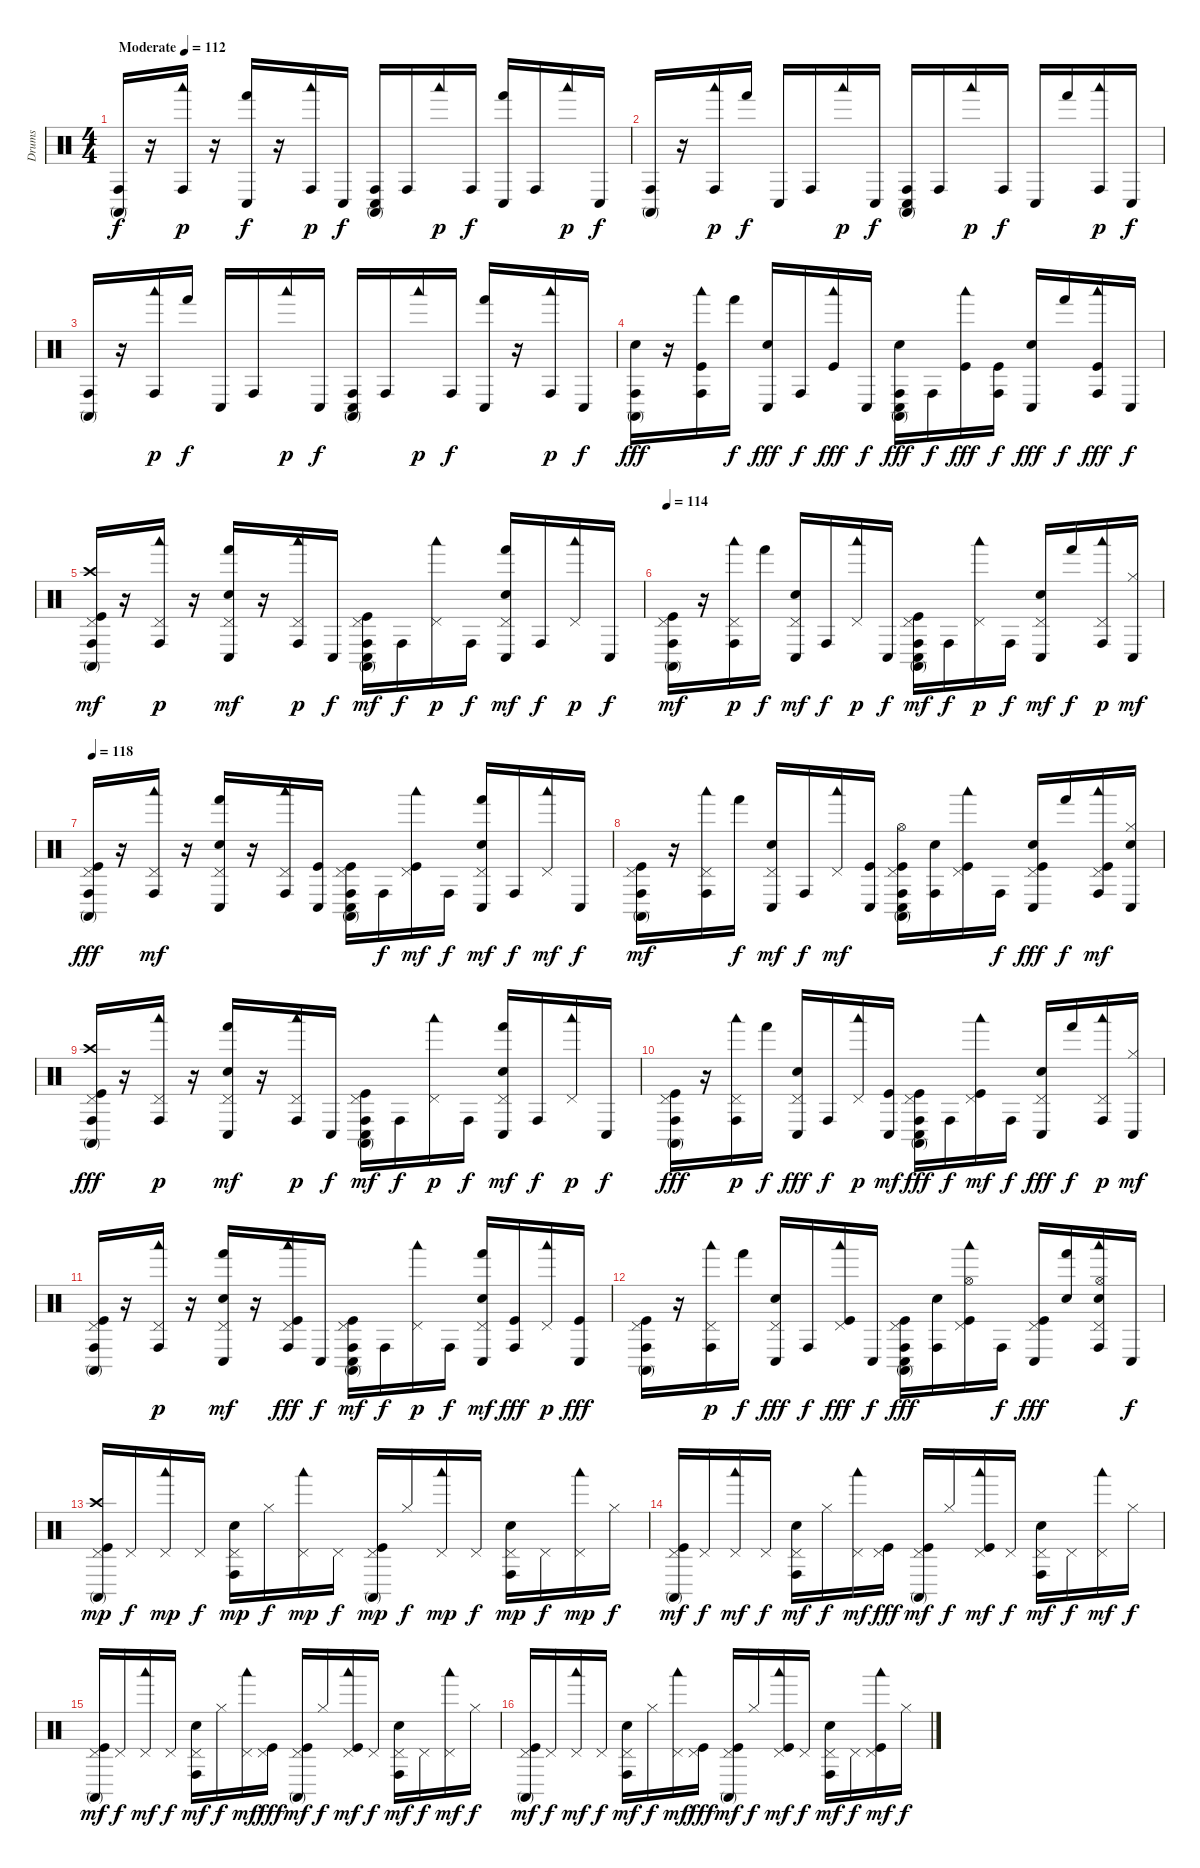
\track ("Drums" "Drums") {instrument percussion}
\staff {score}
\articulation defaults
\ts (4 4)
\tempo (112 "Moderate")
\clef neutral
\ks c
("Conga high (hit)" "Conga high (mute)").16{dy f} r.16 ("Woodblock low (hit)" "Conga high (hit)").16{dy p} r.16 ("Hand (hit)" "Conga low (hit)").16{dy f} r.16 ("Conga high (hit)" "Woodblock low (hit)").16{dy p} "Conga low (hit)".16{dy f} ("Conga high (hit)" "Conga high (mute)" "Conga low (hit)").16 "Conga high (hit)".16 "Woodblock low (hit)".16{dy p} "Conga high (hit)".16{dy f} ("Hand (hit)" "Conga low (hit)").16 "Conga high (hit)".16 "Woodblock low (hit)".16{dy p} "Conga low (hit)".16{dy f} |
("Conga high (hit)" "Conga high (mute)").16 r.16 ("Woodblock low (hit)" "Conga high (hit)").16{dy p} "Hand (hit)".16{dy f} "Conga low (hit)".16 "Conga high (hit)".16 "Woodblock low (hit)".16{dy p} "Conga low (hit)".16{dy f} ("Conga high (hit)" "Conga high (mute)" "Conga low (hit)").16 "Conga high (hit)".16 "Woodblock low (hit)".16{dy p} "Conga high (hit)".16{dy f} "Conga low (hit)".16 "Hand (hit)".16 ("Conga high (hit)" "Woodblock low (hit)").16{dy p} "Conga low (hit)".16{dy f} |
("Conga high (hit)" "Conga high (mute)").16 r.16 ("Woodblock low (hit)" "Conga high (hit)").16{dy p} "Hand (hit)".16{dy f} "Conga low (hit)".16 "Conga high (hit)".16 "Woodblock low (hit)".16{dy p} "Conga low (hit)".16{dy f} ("Conga high (hit)" "Conga high (mute)" "Conga low (hit)").16 "Conga high (hit)".16 "Woodblock low (hit)".16{dy p} "Conga high (hit)".16{dy f} ("Hand (hit)" "Conga low (hit)").16 r.16 ("Woodblock low (hit)" "Conga high (hit)").16{dy p} "Conga low (hit)".16{dy f} |
("Conga high (hit)" "Conga high (mute)" "Electric Snare (hit)").16{dy fff} r.16 ("Woodblock low (hit)" "Kick (hit)" "Conga high (hit)").16 "Hand (hit)".16{dy f} ("Conga low (hit)" "Electric Snare (hit)").16{dy fff} "Conga high (hit)".16{dy f} ("Woodblock low (hit)" "Kick (hit)").16{dy fff} "Conga low (hit)".16{dy f} ("Conga high (hit)" "Conga high (mute)" "Conga low (hit)" "Electric Snare (hit)").16{dy fff} "Conga high (hit)".16{dy f} ("Woodblock low (hit)" "Kick (hit)").16{dy fff} ("Conga high (hit)" "Kick (hit)").16{dy f} ("Conga low (hit)" "Electric Snare (hit)").16{dy fff} "Hand (hit)".16{dy f} ("Conga high (hit)" "Woodblock low (hit)" "Kick (hit)").16{dy fff} "Conga low (hit)".16{dy f} |
("Crash high (hit)" "Kick (hit)" "Pedal Hi-Hat (hit)" "Conga high (hit)" "Conga high (mute)").16{dy mf} r.16 ("Pedal Hi-Hat (hit)" "Woodblock low (hit)" "Conga high (hit)").16{dy p} r.16 ("Electric Snare (hit)" "Pedal Hi-Hat (hit)" "Hand (hit)" "Conga low (hit)").16{dy mf} r.16 ("Pedal Hi-Hat (hit)" "Conga high (hit)" "Woodblock low (hit)").16{dy p} "Conga low (hit)".16{dy f} ("Kick (hit)" "Pedal Hi-Hat (hit)" "Conga high (hit)" "Conga high (mute)" "Conga low (hit)").16{dy mf} "Conga high (hit)".16{dy f} ("Pedal Hi-Hat (hit)" "Woodblock low (hit)").16{dy p} "Conga high (hit)".16{dy f} ("Electric Snare (hit)" "Pedal Hi-Hat (hit)" "Hand (hit)" "Conga low (hit)").16{dy mf} "Conga high (hit)".16{dy f} ("Pedal Hi-Hat (hit)" "Woodblock low (hit)").16{dy p} "Conga low (hit)".16{dy f} |
\tempo 114
("Kick (hit)" "Pedal Hi-Hat (hit)" "Conga high (hit)" "Conga high (mute)").16{dy mf} r.16 ("Pedal Hi-Hat (hit)" "Woodblock low (hit)" "Conga high (hit)").16{dy p} "Hand (hit)".16{dy f} ("Electric Snare (hit)" "Pedal Hi-Hat (hit)" "Conga low (hit)").16{dy mf} "Conga high (hit)".16{dy f} ("Pedal Hi-Hat (hit)" "Woodblock low (hit)").16{dy p} "Conga low (hit)".16{dy f} ("Kick (hit)" "Pedal Hi-Hat (hit)" "Conga high (hit)" "Conga high (mute)" "Conga low (hit)").16{dy mf} "Conga high (hit)".16{dy f} ("Pedal Hi-Hat (hit)" "Woodblock low (hit)").16{dy p} "Conga high (hit)".16{dy f} ("Electric Snare (hit)" "Pedal Hi-Hat (hit)" "Conga low (hit)").16{dy mf} "Hand (hit)".16{dy f} ("Pedal Hi-Hat (hit)" "Conga high (hit)" "Woodblock low (hit)").16{dy p} ("Conga low (hit)" "Hi-Hat (closed)").16{dy mf} |
\tempo 118
("Conga high (hit)" "Conga high (mute)" "Pedal Hi-Hat (hit)" "Kick (hit)").16{dy fff} r.16 ("Woodblock low (hit)" "Conga high (hit)" "Pedal Hi-Hat (hit)").16{dy mf} r.16 ("Hand (hit)" "Conga low (hit)" "Electric Snare (hit)" "Pedal Hi-Hat (hit)").16 r.16 ("Conga high (hit)" "Woodblock low (hit)" "Pedal Hi-Hat (hit)").16 ("Conga low (hit)" "Kick (hit)").16 ("Conga high (hit)" "Conga high (mute)" "Conga low (hit)" "Kick (hit)" "Pedal Hi-Hat (hit)").16 "Conga high (hit)".16{dy f} ("Woodblock low (hit)" "Pedal Hi-Hat (hit)" "Kick (hit)").16{dy mf} "Conga high (hit)".16{dy f} ("Hand (hit)" "Conga low (hit)" "Electric Snare (hit)" "Pedal Hi-Hat (hit)").16{dy mf} "Conga high (hit)".16{dy f} ("Woodblock low (hit)" "Pedal Hi-Hat (hit)").16{dy mf} "Conga low (hit)".16{dy f} |
("Conga high (hit)" "Conga high (mute)" "Kick (hit)" "Pedal Hi-Hat (hit)").16{dy mf} r.16 ("Woodblock low (hit)" "Conga high (hit)" "Pedal Hi-Hat (hit)").16 "Hand (hit)".16{dy f} ("Conga low (hit)" "Electric Snare (hit)" "Pedal Hi-Hat (hit)").16{dy mf} "Conga high (hit)".16{dy f} ("Woodblock low (hit)" "Pedal Hi-Hat (hit)").16{dy mf} ("Conga low (hit)" "Kick (hit)").16 ("Conga high (hit)" "Conga high (mute)" "Conga low (hit)" "Kick (hit)" "Pedal Hi-Hat (hit)" "Hi-Hat (open)").16 ("Conga high (hit)" "Electric Snare (hit)").16 ("Woodblock low (hit)" "Pedal Hi-Hat (hit)" "Kick (hit)").16 "Conga high (hit)".16{dy f} ("Conga low (hit)" "Pedal Hi-Hat (hit)" "Kick (hit)" "Electric Snare (hit)").16{dy fff} "Hand (hit)".16{dy f} ("Conga high (hit)" "Woodblock low (hit)" "Pedal Hi-Hat (hit)" "Kick (hit)").16{dy mf} ("Conga low (hit)" "Electric Snare (hit)" "Hi-Hat (closed)").16 |
("Conga high (mute)" "Conga high (hit)" "Pedal Hi-Hat (hit)" "Kick (hit)" "Crash high (hit)").16{dy fff} r.16 ("Pedal Hi-Hat (hit)" "Woodblock low (hit)" "Conga high (hit)").16{dy p} r.16 ("Electric Snare (hit)" "Pedal Hi-Hat (hit)" "Hand (hit)" "Conga low (hit)").16{dy mf} r.16 ("Pedal Hi-Hat (hit)" "Conga high (hit)" "Woodblock low (hit)").16{dy p} "Conga low (hit)".16{dy f} ("Kick (hit)" "Pedal Hi-Hat (hit)" "Conga high (hit)" "Conga high (mute)" "Conga low (hit)").16{dy mf} "Conga high (hit)".16{dy f} ("Pedal Hi-Hat (hit)" "Woodblock low (hit)").16{dy p} "Conga high (hit)".16{dy f} ("Electric Snare (hit)" "Pedal Hi-Hat (hit)" "Hand (hit)" "Conga low (hit)").16{dy mf} "Conga high (hit)".16{dy f} ("Pedal Hi-Hat (hit)" "Woodblock low (hit)").16{dy p} "Conga low (hit)".16{dy f} |
("Pedal Hi-Hat (hit)" "Conga high (hit)" "Conga high (mute)" "Kick (hit)").16{dy fff} r.16 ("Pedal Hi-Hat (hit)" "Woodblock low (hit)" "Conga high (hit)").16{dy p} "Hand (hit)".16{dy f} ("Pedal Hi-Hat (hit)" "Conga low (hit)" "Electric Snare (hit)").16{dy fff} "Conga high (hit)".16{dy f} ("Pedal Hi-Hat (hit)" "Woodblock low (hit)").16{dy p} ("Conga low (hit)" "Kick (hit)").16{dy mf} ("Pedal Hi-Hat (hit)" "Conga high (hit)" "Conga high (mute)" "Conga low (hit)" "Kick (hit)").16{dy fff} "Conga high (hit)".16{dy f} ("Pedal Hi-Hat (hit)" "Woodblock low (hit)" "Kick (hit)").16{dy mf} "Conga high (hit)".16{dy f} ("Pedal Hi-Hat (hit)" "Conga low (hit)" "Electric Snare (hit)").16{dy fff} "Hand (hit)".16{dy f} ("Pedal Hi-Hat (hit)" "Conga high (hit)" "Woodblock low (hit)").16{dy p} ("Conga low (hit)" "Hi-Hat (closed)").16{dy mf} |
("Kick (hit)" "Pedal Hi-Hat (hit)" "Conga high (hit)" "Conga high (mute)").16 r.16 ("Pedal Hi-Hat (hit)" "Woodblock low (hit)" "Conga high (hit)").16{dy p} r.16 ("Electric Snare (hit)" "Pedal Hi-Hat (hit)" "Hand (hit)" "Conga low (hit)").16{dy mf} r.16 ("Pedal Hi-Hat (hit)" "Conga high (hit)" "Woodblock low (hit)" "Kick (hit)").16{dy fff} "Conga low (hit)".16{dy f} ("Kick (hit)" "Pedal Hi-Hat (hit)" "Conga high (hit)" "Conga high (mute)" "Conga low (hit)").16{dy mf} "Conga high (hit)".16{dy f} ("Pedal Hi-Hat (hit)" "Woodblock low (hit)").16{dy p} "Conga high (hit)".16{dy f} ("Electric Snare (hit)" "Pedal Hi-Hat (hit)" "Hand (hit)" "Conga low (hit)").16{dy mf} ("Conga high (hit)" "Kick (hit)").16{dy fff} ("Pedal Hi-Hat (hit)" "Woodblock low (hit)").16{dy p} ("Conga low (hit)" "Kick (hit)").16{dy fff} |
("Pedal Hi-Hat (hit)" "Conga high (hit)" "Conga high (mute)" "Kick (hit)").16 r.16 ("Pedal Hi-Hat (hit)" "Woodblock low (hit)" "Conga high (hit)").16{dy p} "Hand (hit)".16{dy f} ("Pedal Hi-Hat (hit)" "Conga low (hit)" "Electric Snare (hit)").16{dy fff} "Conga high (hit)".16{dy f} ("Pedal Hi-Hat (hit)" "Woodblock low (hit)" "Kick (hit)").16{dy fff} "Conga low (hit)".16{dy f} ("Pedal Hi-Hat (hit)" "Conga high (hit)" "Conga high (mute)" "Conga low (hit)" "Kick (hit)").16{dy fff} ("Conga high (hit)" "Electric Snare (hit)").16 ("Pedal Hi-Hat (hit)" "Woodblock low (hit)" "Kick (hit)" "Hi-Hat (open)").16 "Conga high (hit)".16{dy f} ("Pedal Hi-Hat (hit)" "Conga low (hit)" "Kick (hit)").16{dy fff} ("Hand (hit)" "Electric Snare (hit)").16 ("Pedal Hi-Hat (hit)" "Conga high (hit)" "Woodblock low (hit)" "Electric Snare (hit)" "Hi-Hat (open)").16 "Conga low (hit)".16{dy f} |
("Crash high (hit)" "Kick (hit)" "Pedal Hi-Hat (hit)" "Conga high (mute)").16{dy mp} "Pedal Hi-Hat (hit)".16{dy f} ("Pedal Hi-Hat (hit)" "Woodblock low (hit)").16{dy mp} "Pedal Hi-Hat (hit)".16{dy f} ("Electric Snare (hit)" "Pedal Hi-Hat (hit)" "Conga high (hit)").16{dy mp} "Hi-Hat (closed)".16{dy f} ("Pedal Hi-Hat (hit)" "Woodblock low (hit)").16{dy mp} "Pedal Hi-Hat (hit)".16{dy f} ("Kick (hit)" "Pedal Hi-Hat (hit)" "Conga high (mute)").16{dy mp} "Hi-Hat (closed)".16{dy f} ("Pedal Hi-Hat (hit)" "Woodblock low (hit)").16{dy mp} "Pedal Hi-Hat (hit)".16{dy f} ("Electric Snare (hit)" "Pedal Hi-Hat (hit)" "Conga high (hit)").16{dy mp} "Pedal Hi-Hat (hit)".16{dy f} ("Pedal Hi-Hat (hit)" "Woodblock low (hit)").16{dy mp} "Hi-Hat (closed)".16{dy f} |
("Kick (hit)" "Conga high (mute)" "Pedal Hi-Hat (hit)").16{dy mf} "Pedal Hi-Hat (hit)".16{dy f} ("Woodblock low (hit)" "Pedal Hi-Hat (hit)").16{dy mf} "Pedal Hi-Hat (hit)".16{dy f} ("Electric Snare (hit)" "Conga high (hit)" "Pedal Hi-Hat (hit)").16{dy mf} "Hi-Hat (closed)".16{dy f} ("Woodblock low (hit)" "Pedal Hi-Hat (hit)").16{dy mf} ("Kick (hit)" "Pedal Hi-Hat (hit)").16{dy fff} ("Kick (hit)" "Conga high (mute)" "Pedal Hi-Hat (hit)").16{dy mf} "Hi-Hat (closed)".16{dy f} ("Kick (hit)" "Woodblock low (hit)" "Pedal Hi-Hat (hit)").16{dy mf} "Pedal Hi-Hat (hit)".16{dy f} ("Electric Snare (hit)" "Conga high (hit)" "Pedal Hi-Hat (hit)").16{dy mf} "Pedal Hi-Hat (hit)".16{dy f} ("Woodblock low (hit)" "Pedal Hi-Hat (hit)").16{dy mf} "Hi-Hat (closed)".16{dy f} |
("Kick (hit)" "Conga high (mute)" "Pedal Hi-Hat (hit)").16{dy mf} "Pedal Hi-Hat (hit)".16{dy f} ("Woodblock low (hit)" "Pedal Hi-Hat (hit)").16{dy mf} "Pedal Hi-Hat (hit)".16{dy f} ("Electric Snare (hit)" "Conga high (hit)" "Pedal Hi-Hat (hit)").16{dy mf} "Hi-Hat (closed)".16{dy f} ("Woodblock low (hit)" "Pedal Hi-Hat (hit)").16{dy mf} ("Kick (hit)" "Pedal Hi-Hat (hit)").16{dy fff} ("Kick (hit)" "Conga high (mute)" "Pedal Hi-Hat (hit)").16{dy mf} "Hi-Hat (closed)".16{dy f} ("Kick (hit)" "Woodblock low (hit)" "Pedal Hi-Hat (hit)").16{dy mf} "Pedal Hi-Hat (hit)".16{dy f} ("Electric Snare (hit)" "Conga high (hit)" "Pedal Hi-Hat (hit)").16{dy mf} "Pedal Hi-Hat (hit)".16{dy f} ("Woodblock low (hit)" "Pedal Hi-Hat (hit)").16{dy mf} "Hi-Hat (closed)".16{dy f} |
("Kick (hit)" "Conga high (mute)" "Pedal Hi-Hat (hit)").16{dy mf} "Pedal Hi-Hat (hit)".16{dy f} ("Woodblock low (hit)" "Pedal Hi-Hat (hit)").16{dy mf} "Pedal Hi-Hat (hit)".16{dy f} ("Electric Snare (hit)" "Conga high (hit)" "Pedal Hi-Hat (hit)").16{dy mf} "Hi-Hat (closed)".16{dy f} ("Woodblock low (hit)" "Pedal Hi-Hat (hit)").16{dy mf} ("Kick (hit)" "Pedal Hi-Hat (hit)").16{dy fff} ("Kick (hit)" "Conga high (mute)" "Pedal Hi-Hat (hit)").16{dy mf} "Hi-Hat (closed)".16{dy f} ("Kick (hit)" "Woodblock low (hit)" "Pedal Hi-Hat (hit)").16{dy mf} "Pedal Hi-Hat (hit)".16{dy f} ("Electric Snare (hit)" "Conga high (hit)" "Pedal Hi-Hat (hit)").16{dy mf} "Pedal Hi-Hat (hit)".16{dy f} ("Woodblock low (hit)" "Kick (hit)" "Pedal Hi-Hat (hit)").16{dy mf} "Hi-Hat (closed)".16{dy f}
